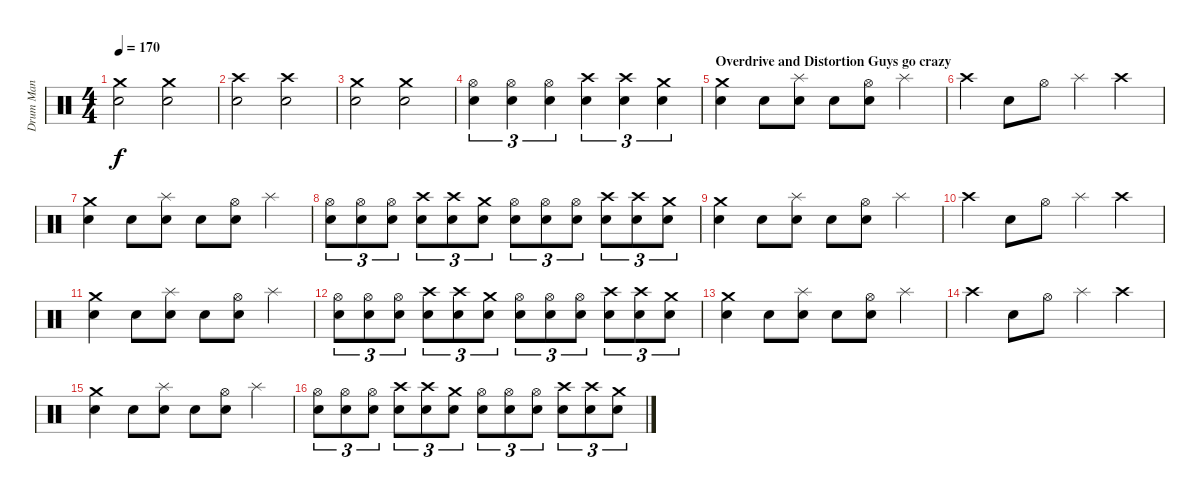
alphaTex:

\track ("Drum Man" "Drum Man") {instrument percussion}
\staff {score}
\articulation defaults
\ts (4 4)
\tempo 170
\clef neutral
\ks c
("Crash medium (hit)" "Electric Snare (hit)").2{dy f} ("Crash medium (hit)" "Electric Snare (hit)").2 |
("Crash high (hit)" "Electric Snare (hit)").2 ("Crash high (hit)" "Electric Snare (hit)").2 |
("Crash medium (hit)" "Electric Snare (hit)").2 ("Crash medium (hit)" "Electric Snare (hit)").2 |
("Hi-Hat (open)" "Electric Snare (hit)").4{tu (3 2)} ("Hi-Hat (open)" "Electric Snare (hit)").4{tu (3 2)} ("Hi-Hat (open)" "Electric Snare (hit)").4{tu (3 2)} ("Crash high (hit)" "Electric Snare (hit)").4{tu (3 2)} ("Crash high (hit)" "Electric Snare (hit)").4{tu (3 2)} ("Crash medium (hit)" "Electric Snare (hit)").4{tu (3 2)} |
\section ("" "Overdrive and Distortion Guys go crazy")
("Crash medium (hit)" "Electric Snare (hit)").4 "Electric Snare (hit)".8 ("Splash (hit)" "Electric Snare (hit)").8 "Electric Snare (hit)".8 ("Hi-Hat (open)" "Electric Snare (hit)").8 "Splash (hit)".4 |
"Crash high (hit)".4 "Electric Snare (hit)".8 "Hi-Hat (open)".8 "Splash (hit)".4 "Crash high (hit)".4 |
("Crash medium (hit)" "Electric Snare (hit)").4 "Electric Snare (hit)".8 ("Splash (hit)" "Electric Snare (hit)").8 "Electric Snare (hit)".8 ("Hi-Hat (open)" "Electric Snare (hit)").8 "Splash (hit)".4 |
("Hi-Hat (open)" "Electric Snare (hit)").8{tu (3 2)} ("Hi-Hat (open)" "Electric Snare (hit)").8{tu (3 2)} ("Hi-Hat (open)" "Electric Snare (hit)").8{tu (3 2)} ("Crash high (hit)" "Electric Snare (hit)").8{tu (3 2)} ("Crash high (hit)" "Electric Snare (hit)").8{tu (3 2)} ("Crash medium (hit)" "Electric Snare (hit)").8{tu (3 2)} ("Hi-Hat (open)" "Electric Snare (hit)").8{tu (3 2)} ("Hi-Hat (open)" "Electric Snare (hit)").8{tu (3 2)} ("Hi-Hat (open)" "Electric Snare (hit)").8{tu (3 2)} ("Crash high (hit)" "Electric Snare (hit)").8{tu (3 2)} ("Crash high (hit)" "Electric Snare (hit)").8{tu (3 2)} ("Crash medium (hit)" "Electric Snare (hit)").8{tu (3 2)} |
("Crash medium (hit)" "Electric Snare (hit)").4 "Electric Snare (hit)".8 ("Splash (hit)" "Electric Snare (hit)").8 "Electric Snare (hit)".8 ("Hi-Hat (open)" "Electric Snare (hit)").8 "Splash (hit)".4 |
"Crash high (hit)".4 "Electric Snare (hit)".8 "Hi-Hat (open)".8 "Splash (hit)".4 "Crash high (hit)".4 |
("Crash medium (hit)" "Electric Snare (hit)").4 "Electric Snare (hit)".8 ("Splash (hit)" "Electric Snare (hit)").8 "Electric Snare (hit)".8 ("Hi-Hat (open)" "Electric Snare (hit)").8 "Splash (hit)".4 |
("Hi-Hat (open)" "Electric Snare (hit)").8{tu (3 2)} ("Hi-Hat (open)" "Electric Snare (hit)").8{tu (3 2)} ("Hi-Hat (open)" "Electric Snare (hit)").8{tu (3 2)} ("Crash high (hit)" "Electric Snare (hit)").8{tu (3 2)} ("Crash high (hit)" "Electric Snare (hit)").8{tu (3 2)} ("Crash medium (hit)" "Electric Snare (hit)").8{tu (3 2)} ("Hi-Hat (open)" "Electric Snare (hit)").8{tu (3 2)} ("Hi-Hat (open)" "Electric Snare (hit)").8{tu (3 2)} ("Hi-Hat (open)" "Electric Snare (hit)").8{tu (3 2)} ("Crash high (hit)" "Electric Snare (hit)").8{tu (3 2)} ("Crash high (hit)" "Electric Snare (hit)").8{tu (3 2)} ("Crash medium (hit)" "Electric Snare (hit)").8{tu (3 2)} |
("Crash medium (hit)" "Electric Snare (hit)").4 "Electric Snare (hit)".8 ("Splash (hit)" "Electric Snare (hit)").8 "Electric Snare (hit)".8 ("Hi-Hat (open)" "Electric Snare (hit)").8 "Splash (hit)".4 |
"Crash high (hit)".4 "Electric Snare (hit)".8 "Hi-Hat (open)".8 "Splash (hit)".4 "Crash high (hit)".4 |
("Crash medium (hit)" "Electric Snare (hit)").4 "Electric Snare (hit)".8 ("Splash (hit)" "Electric Snare (hit)").8 "Electric Snare (hit)".8 ("Hi-Hat (open)" "Electric Snare (hit)").8 "Splash (hit)".4 |
("Hi-Hat (open)" "Electric Snare (hit)").8{tu (3 2)} ("Hi-Hat (open)" "Electric Snare (hit)").8{tu (3 2)} ("Hi-Hat (open)" "Electric Snare (hit)").8{tu (3 2)} ("Crash high (hit)" "Electric Snare (hit)").8{tu (3 2)} ("Crash high (hit)" "Electric Snare (hit)").8{tu (3 2)} ("Crash medium (hit)" "Electric Snare (hit)").8{tu (3 2)} ("Hi-Hat (open)" "Electric Snare (hit)").8{tu (3 2)} ("Hi-Hat (open)" "Electric Snare (hit)").8{tu (3 2)} ("Hi-Hat (open)" "Electric Snare (hit)").8{tu (3 2)} ("Crash high (hit)" "Electric Snare (hit)").8{tu (3 2)} ("Crash high (hit)" "Electric Snare (hit)").8{tu (3 2)} ("Crash medium (hit)" "Electric Snare (hit)").8{tu (3 2)}
